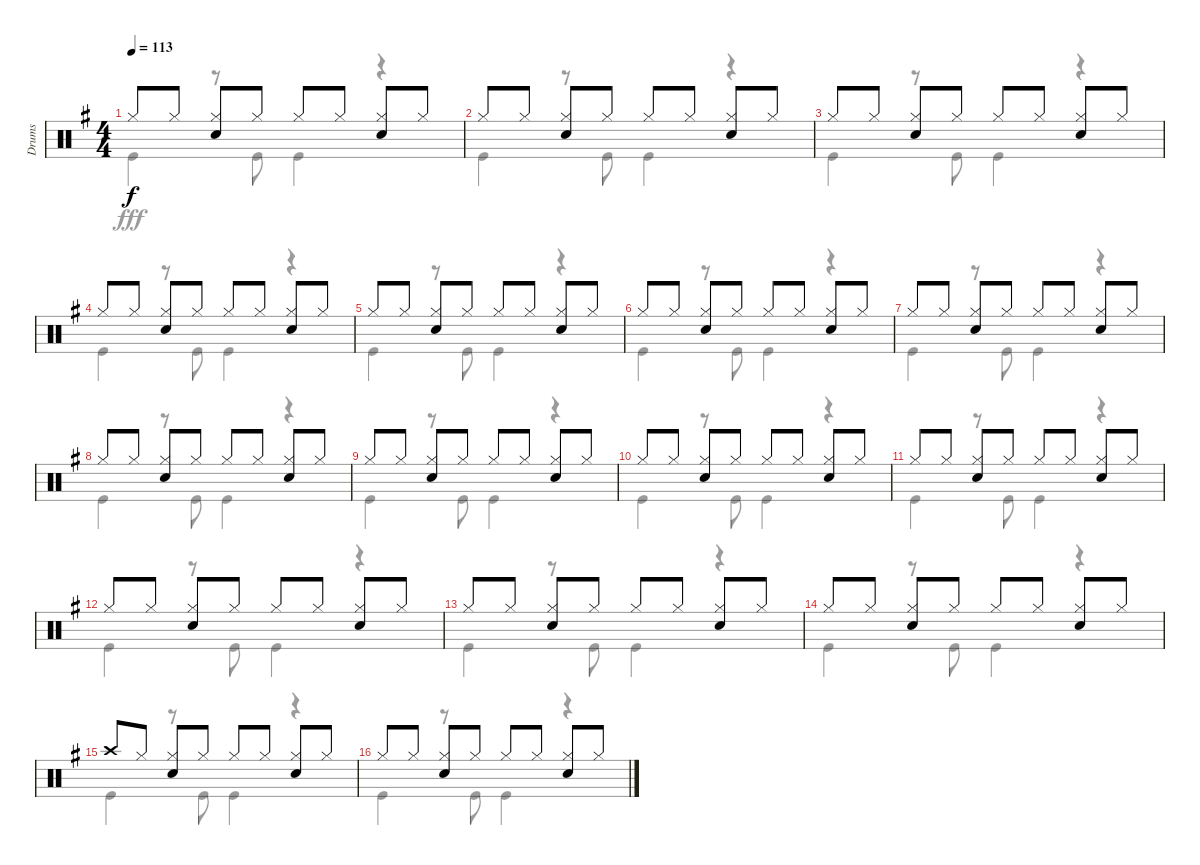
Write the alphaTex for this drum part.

\track ("Drums" "Drums") {instrument percussion}
\staff {score}
\articulation defaults
\voice
\ts (4 4)
\tempo 113
\clef neutral
\ks g "Hi-Hat (closed)".8{dy f} "Hi-Hat (closed)".8
("Hi-Hat (closed)" "Snare (hit) 2").8 "Hi-Hat (closed)".8 "Hi-Hat (closed)".8 "Hi-Hat (closed)".8 ("Hi-Hat (closed)" "Snare (hit) 2").8 "Hi-Hat (closed)".8 |
"Hi-Hat (closed)".8 "Hi-Hat (closed)".8 ("Hi-Hat (closed)" "Snare (hit) 2").8 "Hi-Hat (closed)".8 "Hi-Hat (closed)".8 "Hi-Hat (closed)".8 ("Hi-Hat (closed)" "Snare (hit) 2").8 "Hi-Hat (closed)".8 |
"Hi-Hat (closed)".8 "Hi-Hat (closed)".8 ("Hi-Hat (closed)" "Snare (hit) 2").8 "Hi-Hat (closed)".8 "Hi-Hat (closed)".8 "Hi-Hat (closed)".8 ("Hi-Hat (closed)" "Snare (hit) 2").8 "Hi-Hat (closed)".8 |
"Hi-Hat (closed)".8 "Hi-Hat (closed)".8 ("Hi-Hat (closed)" "Snare (hit) 2").8 "Hi-Hat (closed)".8 "Hi-Hat (closed)".8 "Hi-Hat (closed)".8 ("Hi-Hat (closed)" "Snare (hit) 2").8 "Hi-Hat (closed)".8 |
"Hi-Hat (closed)".8 "Hi-Hat (closed)".8 ("Hi-Hat (closed)" "Snare (hit) 2").8 "Hi-Hat (closed)".8 "Hi-Hat (closed)".8 "Hi-Hat (closed)".8 ("Hi-Hat (closed)" "Snare (hit) 2").8 "Hi-Hat (closed)".8 |
"Hi-Hat (closed)".8 "Hi-Hat (closed)".8 ("Hi-Hat (closed)" "Snare (hit) 2").8 "Hi-Hat (closed)".8 "Hi-Hat (closed)".8 "Hi-Hat (closed)".8 ("Hi-Hat (closed)" "Snare (hit) 2").8 "Hi-Hat (closed)".8 |
"Hi-Hat (closed)".8 "Hi-Hat (closed)".8 ("Hi-Hat (closed)" "Snare (hit) 2").8 "Hi-Hat (closed)".8 "Hi-Hat (closed)".8 "Hi-Hat (closed)".8 ("Hi-Hat (closed)" "Snare (hit) 2").8 "Hi-Hat (closed)".8 |
"Hi-Hat (closed)".8 "Hi-Hat (closed)".8 ("Hi-Hat (closed)" "Snare (hit) 2").8 "Hi-Hat (closed)".8 "Hi-Hat (closed)".8 "Hi-Hat (closed)".8 ("Hi-Hat (closed)" "Snare (hit) 2").8 "Hi-Hat (closed)".8 |
"Hi-Hat (closed)".8 "Hi-Hat (closed)".8 ("Hi-Hat (closed)" "Snare (hit) 2").8 "Hi-Hat (closed)".8 "Hi-Hat (closed)".8 "Hi-Hat (closed)".8 ("Hi-Hat (closed)" "Snare (hit) 2").8 "Hi-Hat (closed)".8 |
"Hi-Hat (closed)".8 "Hi-Hat (closed)".8 ("Hi-Hat (closed)" "Snare (hit) 2").8 "Hi-Hat (closed)".8 "Hi-Hat (closed)".8 "Hi-Hat (closed)".8 ("Hi-Hat (closed)" "Snare (hit) 2").8 "Hi-Hat (closed)".8 |
"Hi-Hat (closed)".8 "Hi-Hat (closed)".8 ("Hi-Hat (closed)" "Snare (hit) 2").8 "Hi-Hat (closed)".8 "Hi-Hat (closed)".8 "Hi-Hat (closed)".8 ("Hi-Hat (closed)" "Snare (hit) 2").8 "Hi-Hat (closed)".8 |
"Hi-Hat (closed)".8 "Hi-Hat (closed)".8 ("Hi-Hat (closed)" "Snare (hit) 2").8 "Hi-Hat (closed)".8 "Hi-Hat (closed)".8 "Hi-Hat (closed)".8 ("Hi-Hat (closed)" "Snare (hit) 2").8 "Hi-Hat (closed)".8 |
"Hi-Hat (closed)".8 "Hi-Hat (closed)".8 ("Hi-Hat (closed)" "Snare (hit) 2").8 "Hi-Hat (closed)".8 "Hi-Hat (closed)".8 "Hi-Hat (closed)".8 ("Hi-Hat (closed)" "Snare (hit) 2").8 "Hi-Hat (closed)".8 |
"Hi-Hat (closed)".8 "Hi-Hat (closed)".8 ("Hi-Hat (closed)" "Snare (hit) 2").8 "Hi-Hat (closed)".8 "Hi-Hat (closed)".8 "Hi-Hat (closed)".8 ("Hi-Hat (closed)" "Snare (hit) 2").8 "Hi-Hat (closed)".8 |
"Crash high (hit)".8 "Hi-Hat (closed)".8 ("Hi-Hat (closed)" "Snare (hit) 2").8 "Hi-Hat (closed)".8 "Hi-Hat (closed)".8 "Hi-Hat (closed)".8 ("Hi-Hat (closed)" "Snare (hit) 2").8 "Hi-Hat (closed)".8 |
"Hi-Hat (closed)".8 "Hi-Hat (closed)".8 ("Hi-Hat (closed)" "Snare (hit) 2").8 "Hi-Hat (closed)".8 "Hi-Hat (closed)".8 "Hi-Hat (closed)".8 ("Hi-Hat (closed)" "Snare (hit) 2").8 "Hi-Hat (closed)".8
\voice
\clef neutral
\ottava regular
\simile none
\ks g "Kick (hit)".4{dy fff}
r.8 "Kick (hit)".8 "Kick (hit)".4 r.4 |
"Kick (hit)".4 r.8 "Kick (hit)".8 "Kick (hit)".4 r.4 |
"Kick (hit)".4 r.8 "Kick (hit)".8 "Kick (hit)".4 r.4 |
"Kick (hit)".4 r.8 "Kick (hit)".8 "Kick (hit)".4 r.4 |
"Kick (hit)".4 r.8 "Kick (hit)".8 "Kick (hit)".4 r.4 |
"Kick (hit)".4 r.8 "Kick (hit)".8 "Kick (hit)".4 r.4 |
"Kick (hit)".4 r.8 "Kick (hit)".8 "Kick (hit)".4 r.4 |
"Kick (hit)".4 r.8 "Kick (hit)".8 "Kick (hit)".4 r.4 |
"Kick (hit)".4 r.8 "Kick (hit)".8 "Kick (hit)".4 r.4 |
"Kick (hit)".4 r.8 "Kick (hit)".8 "Kick (hit)".4 r.4 |
"Kick (hit)".4 r.8 "Kick (hit)".8 "Kick (hit)".4 r.4 |
"Kick (hit)".4 r.8 "Kick (hit)".8 "Kick (hit)".4 r.4 |
"Kick (hit)".4 r.8 "Kick (hit)".8 "Kick (hit)".4 r.4 |
"Kick (hit)".4 r.8 "Kick (hit)".8 "Kick (hit)".4 r.4 |
"Kick (hit)".4 r.8 "Kick (hit)".8 "Kick (hit)".4 r.4 |
"Kick (hit)".4 r.8 "Kick (hit)".8 "Kick (hit)".4 r.4
